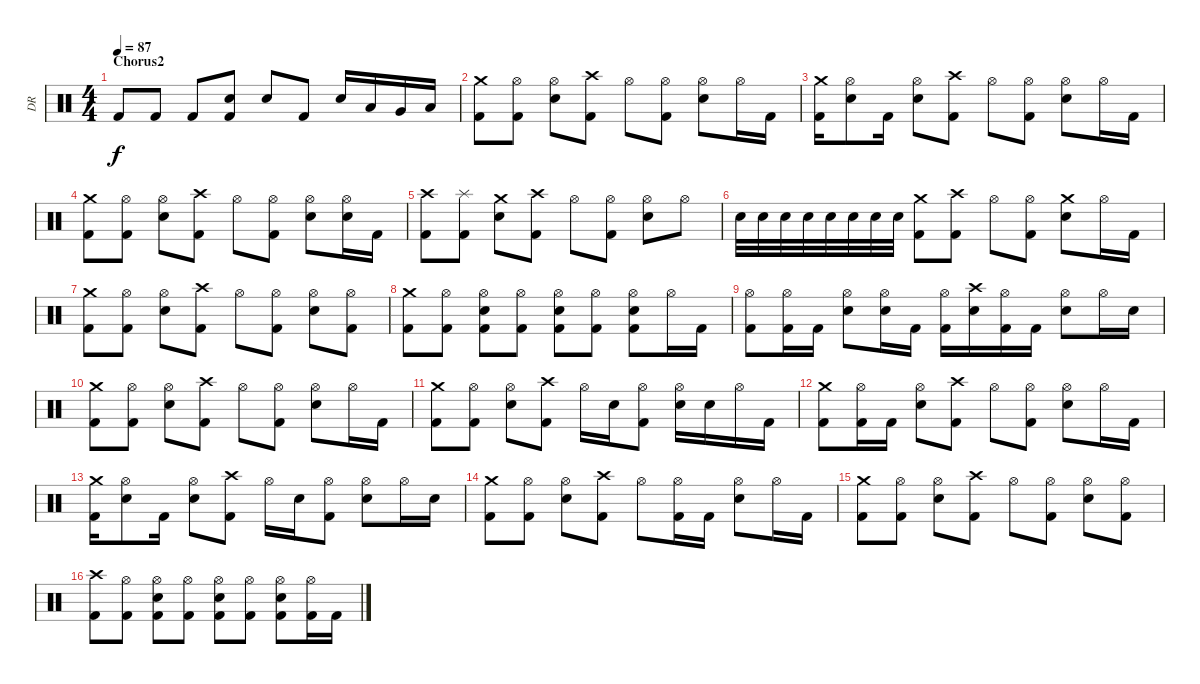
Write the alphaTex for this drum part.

\track ("DR" "DR") {instrument percussion}
\staff {score}
\articulation defaults
\ts (4 4)
\section ("" "Chorus2")
\tempo 87
\clef neutral
\ks c "Kick (hit) 2".8{dy f} "Kick (hit) 2".8 "Kick (hit) 2".8
("Snare (hit) 2" "Kick (hit) 2").8 "Snare (hit) 2".8 "Kick (hit) 2".8 "Snare (hit) 2".16 "Low Tom (hit)".16 "Very Low Tom (hit)".16 "Low Floor Tom (hit)".16 |
("Crash medium (hit)" "Kick (hit) 2").8 ("Hi-Hat (open)" "Kick (hit) 2").8 ("Hi-Hat (open)" "Electric Snare (hit)").8 ("Crash high (hit)" "Kick (hit) 2").8 "Hi-Hat (open)".8 ("Hi-Hat (open)" "Kick (hit) 2").8 ("Hi-Hat (open)" "Electric Snare (hit)").8 "Hi-Hat (open)".16 "Kick (hit) 2".16 |
("Crash medium (hit)" "Kick (hit) 2").16 ("Hi-Hat (open)" "Electric Snare (hit)").8 "Kick (hit) 2".16 ("Hi-Hat (open)" "Electric Snare (hit)").8 ("Crash high (hit)" "Kick (hit) 2").8 "Hi-Hat (open)".8 ("Hi-Hat (open)" "Kick (hit) 2").8 ("Hi-Hat (open)" "Electric Snare (hit)").8 "Hi-Hat (open)".16 "Kick (hit) 2".16 |
("Crash medium (hit)" "Kick (hit) 2").8 ("Hi-Hat (open)" "Kick (hit) 2").8 ("Hi-Hat (open)" "Electric Snare (hit)").8 ("Crash high (hit)" "Kick (hit) 2").8 "Hi-Hat (open)".8 ("Hi-Hat (open)" "Kick (hit) 2").8 ("Hi-Hat (open)" "Electric Snare (hit)").8 ("Hi-Hat (open)" "Electric Snare (hit)").16 "Kick (hit) 2".16 |
("Crash high (hit)" "Kick (hit) 2").8 ("Splash (hit)" "Kick (hit) 2").8 ("Crash medium (hit)" "Electric Snare (hit)").8 ("Crash high (hit)" "Kick (hit) 2").8 "Hi-Hat (open)".8 ("Hi-Hat (open)" "Kick (hit) 2").8 ("Hi-Hat (open)" "Electric Snare (hit)").8 "Hi-Hat (open)".8 |
"Electric Snare (hit)".32 "Electric Snare (hit)".32 "Electric Snare (hit)".32 "Electric Snare (hit)".32 "Electric Snare (hit)".32 "Electric Snare (hit)".32 "Electric Snare (hit)".32 "Electric Snare (hit)".32 ("Crash medium (hit)" "Kick (hit) 2").8 ("Crash high (hit)" "Kick (hit) 2").8 "Hi-Hat (open)".8 ("Hi-Hat (open)" "Kick (hit) 2").8 ("Crash medium (hit)" "Electric Snare (hit)").8 "Hi-Hat (open)".16 "Kick (hit) 2".16 |
("Crash medium (hit)" "Kick (hit) 2").8 ("Hi-Hat (open)" "Kick (hit) 2").8 ("Hi-Hat (open)" "Electric Snare (hit)").8 ("Crash high (hit)" "Kick (hit) 2").8 "Hi-Hat (open)".8 ("Hi-Hat (open)" "Kick (hit) 2").8 ("Hi-Hat (open)" "Electric Snare (hit)").8 ("Hi-Hat (open)" "Kick (hit) 2").8 |
("Crash medium (hit)" "Kick (hit) 2").8 ("Hi-Hat (open)" "Kick (hit) 2").8 ("Hi-Hat (open)" "Electric Snare (hit)" "Kick (hit) 2").8 ("Hi-Hat (open)" "Kick (hit) 2").8 ("Hi-Hat (open)" "Electric Snare (hit)" "Kick (hit) 2").8 ("Hi-Hat (open)" "Kick (hit) 2").8 ("Hi-Hat (open)" "Electric Snare (hit)" "Kick (hit) 2").8 "Hi-Hat (open)".16 "Kick (hit) 2".16 |
("Hi-Hat (open)" "Kick (hit) 2").8 ("Hi-Hat (open)" "Kick (hit) 2").16 "Kick (hit) 2".16 ("Hi-Hat (open)" "Electric Snare (hit)").8 ("Hi-Hat (open)" "Electric Snare (hit)").16 "Kick (hit) 2".16 ("Hi-Hat (open)" "Kick (hit) 2").16 ("Crash high (hit)" "Electric Snare (hit)").16 ("Hi-Hat (open)" "Kick (hit) 2").16 "Kick (hit) 2".16 ("Hi-Hat (open)" "Electric Snare (hit)").8 "Hi-Hat (open)".16 "Electric Snare (hit)".16 |
("Crash medium (hit)" "Kick (hit) 2").8 ("Hi-Hat (open)" "Kick (hit) 2").8 ("Hi-Hat (open)" "Electric Snare (hit)").8 ("Crash high (hit)" "Kick (hit) 2").8 "Hi-Hat (open)".8 ("Hi-Hat (open)" "Kick (hit) 2").8 ("Hi-Hat (open)" "Electric Snare (hit)").8 "Hi-Hat (open)".16 "Kick (hit) 2".16 |
("Crash medium (hit)" "Kick (hit) 2").8 ("Hi-Hat (open)" "Kick (hit) 2").8 ("Hi-Hat (open)" "Electric Snare (hit)").8 ("Crash high (hit)" "Kick (hit) 2").8 "Hi-Hat (open)".16 "Electric Snare (hit)".16 ("Hi-Hat (open)" "Kick (hit) 2").8 ("Hi-Hat (open)" "Electric Snare (hit)").16 "Electric Snare (hit)".16 "Hi-Hat (open)".16 "Kick (hit) 2".16 |
("Crash medium (hit)" "Kick (hit) 2").8 ("Hi-Hat (open)" "Kick (hit) 2").16 "Kick (hit) 2".16 ("Hi-Hat (open)" "Electric Snare (hit)").8 ("Crash high (hit)" "Kick (hit) 2").8 "Hi-Hat (open)".8 ("Hi-Hat (open)" "Kick (hit) 2").8 ("Hi-Hat (open)" "Electric Snare (hit)").8 "Hi-Hat (open)".16 "Kick (hit) 2".16 |
("Crash medium (hit)" "Kick (hit) 2").16 ("Hi-Hat (open)" "Electric Snare (hit)").8 "Kick (hit) 2".16 ("Hi-Hat (open)" "Electric Snare (hit)").8 ("Crash high (hit)" "Kick (hit) 2").8 "Hi-Hat (open)".16 "Electric Snare (hit)".16 ("Hi-Hat (open)" "Kick (hit) 2").8 ("Hi-Hat (open)" "Electric Snare (hit)").8 "Hi-Hat (open)".16 "Electric Snare (hit)".16 |
("Crash medium (hit)" "Kick (hit) 2").8 ("Hi-Hat (open)" "Kick (hit) 2").8 ("Hi-Hat (open)" "Electric Snare (hit)").8 ("Crash high (hit)" "Kick (hit) 2").8 "Hi-Hat (open)".8 ("Hi-Hat (open)" "Kick (hit) 2").16 "Kick (hit) 2".16 ("Hi-Hat (open)" "Electric Snare (hit)").8 "Hi-Hat (open)".16 "Kick (hit) 2".16 |
("Crash medium (hit)" "Kick (hit) 2").8 ("Hi-Hat (open)" "Kick (hit) 2").8 ("Hi-Hat (open)" "Electric Snare (hit)").8 ("Crash high (hit)" "Kick (hit) 2").8 "Hi-Hat (open)".8 ("Hi-Hat (open)" "Kick (hit) 2").8 ("Hi-Hat (open)" "Electric Snare (hit)").8 ("Hi-Hat (open)" "Kick (hit) 2").8 |
("Crash high (hit)" "Kick (hit) 2").8 ("Hi-Hat (open)" "Kick (hit) 2").8 ("Hi-Hat (open)" "Electric Snare (hit)" "Kick (hit) 2").8 ("Hi-Hat (open)" "Kick (hit) 2").8 ("Hi-Hat (open)" "Electric Snare (hit)" "Kick (hit) 2").8 ("Hi-Hat (open)" "Kick (hit) 2").8 ("Hi-Hat (open)" "Electric Snare (hit)" "Kick (hit) 2").8 ("Hi-Hat (open)" "Kick (hit) 2").16 "Kick (hit) 2".16
